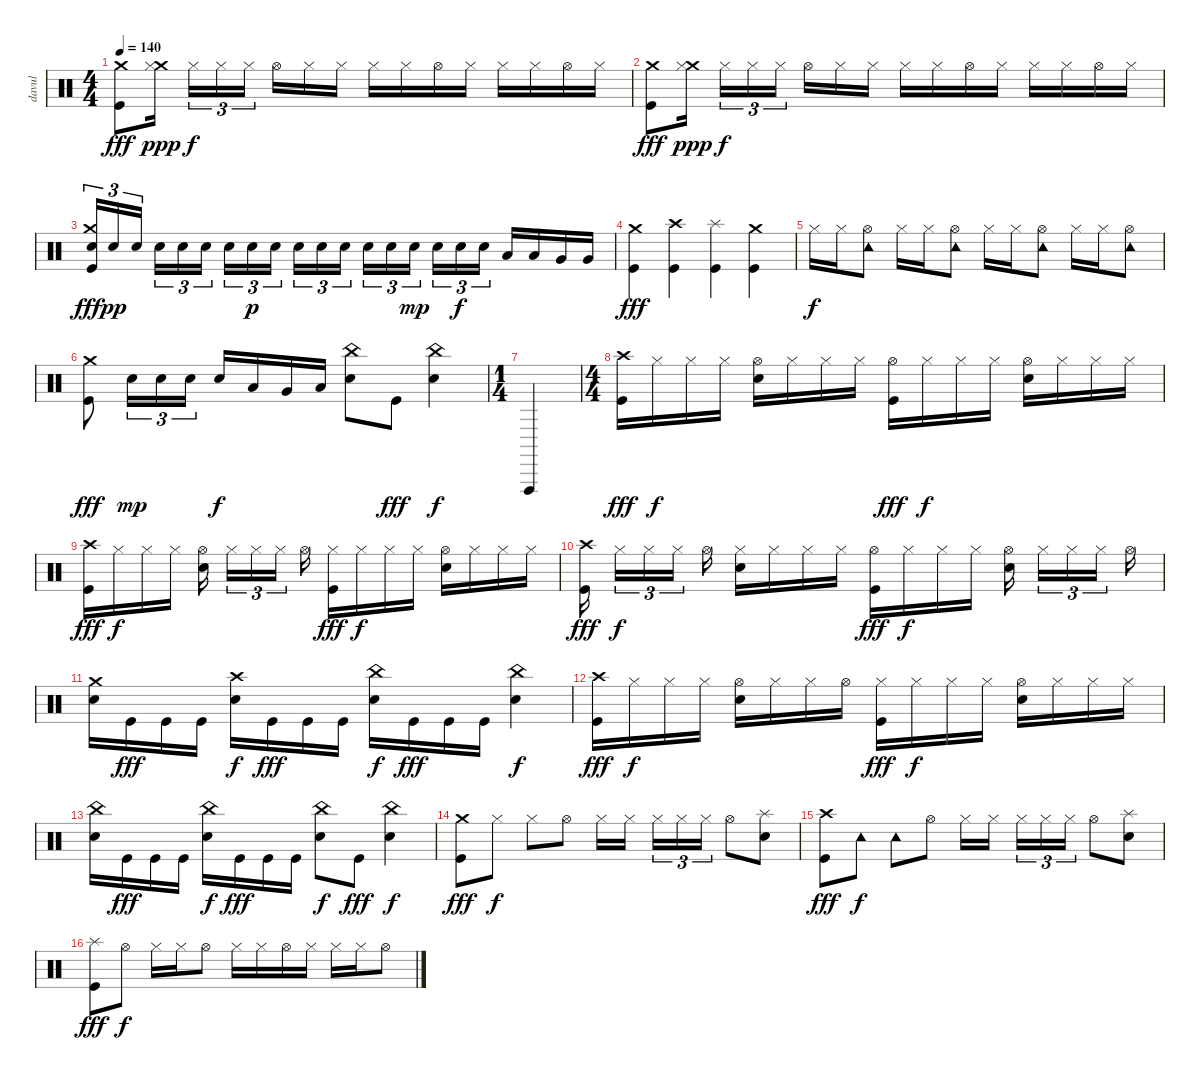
\track ("davul" "davul") {instrument percussion}
\staff {score}
\articulation defaults
\ts (4 4)
\tempo 140
\clef neutral
\ks c
("Kick (hit)" "Crash medium (hit)").8{dy fff} ("Crash medium (hit)" "Hi-Hat (closed)").16{dy ppp} "Hi-Hat (closed)".16{tu (3 2) dy f} "Hi-Hat (closed)".16{tu (3 2)} "Hi-Hat (closed)".16{tu (3 2)} "Hi-Hat (open)".16 "Hi-Hat (closed)".16 "Hi-Hat (closed)".16 "Hi-Hat (closed)".16 "Hi-Hat (closed)".16 "Hi-Hat (open)".16 "Hi-Hat (closed)".16 "Hi-Hat (closed)".16 "Hi-Hat (closed)".16 "Hi-Hat (open)".16 "Hi-Hat (closed)".16 |
("Kick (hit)" "Crash medium (hit)").8{dy fff} ("Crash medium (hit)" "Hi-Hat (closed)").16{dy ppp} "Hi-Hat (closed)".16{tu (3 2) dy f} "Hi-Hat (closed)".16{tu (3 2)} "Hi-Hat (closed)".16{tu (3 2)} "Hi-Hat (open)".16 "Hi-Hat (closed)".16 "Hi-Hat (closed)".16 "Hi-Hat (closed)".16 "Hi-Hat (closed)".16 "Hi-Hat (open)".16 "Hi-Hat (closed)".16 "Hi-Hat (closed)".16 "Hi-Hat (closed)".16 "Hi-Hat (open)".16 "Hi-Hat (closed)".16 |
("Electric Snare (hit)" "Crash medium (hit)" "Kick (hit)").16{tu (3 2) dy fff} "Electric Snare (hit)".16{tu (3 2) dy pp} "Electric Snare (hit)".16{tu (3 2)} "Electric Snare (hit)".16{tu (3 2)} "Electric Snare (hit)".16{tu (3 2)} "Electric Snare (hit)".16{tu (3 2)} "Electric Snare (hit)".16{tu (3 2)} "Electric Snare (hit)".16{tu (3 2) dy p} "Electric Snare (hit)".16{tu (3 2)} "Electric Snare (hit)".16{tu (3 2)} "Electric Snare (hit)".16{tu (3 2)} "Electric Snare (hit)".16{tu (3 2)} "Electric Snare (hit)".16{tu (3 2)} "Electric Snare (hit)".16{tu (3 2)} "Electric Snare (hit)".16{tu (3 2) dy mp} "Electric Snare (hit)".16{tu (3 2)} "Electric Snare (hit)".16{tu (3 2) dy f} "Electric Snare (hit)".16{tu (3 2)} "Low Tom (hit)".16 "Low Tom (hit)".16 "Very Low Tom (hit)".16 "Very Low Tom (hit)".16 |
("Kick (hit)" "Crash medium (hit)").4{dy fff} ("Kick (hit)" "Crash high (hit)").4 ("Kick (hit)" "Splash (hit)").4 ("Kick (hit)" "Crash medium (hit)").4 |
"Hi-Hat (closed)".16{dy f} "Hi-Hat (closed)".16 ("Hi-Hat (open)" "Tambourine (hit)").8 "Hi-Hat (closed)".16 "Hi-Hat (closed)".16 ("Hi-Hat (open)" "Tambourine (hit)").8 "Hi-Hat (closed)".16 "Hi-Hat (closed)".16 ("Hi-Hat (open)" "Tambourine (hit)").8 "Hi-Hat (closed)".16 "Hi-Hat (closed)".16 ("Tambourine (hit)" "Hi-Hat (open)").8 |
("Kick (hit)" "Crash medium (hit)").8{dy fff} "Electric Snare (hit)".16{tu (3 2) dy mp} "Electric Snare (hit)".16{tu (3 2)} "Electric Snare (hit)".16{tu (3 2)} "Electric Snare (hit)".16{dy f} "Low Tom (hit)".16 "Very Low Tom (hit)".16 "Low Floor Tom (hit)".16 ("Electric Snare (hit)" "China (hit)").8 "Kick (hit)".8{dy fff} ("Electric Snare (hit)" "China (hit)").4{dy f} |
\ts (1 4)
"Vibraslap (hit)".4 |
\ts (4 4)
("Kick (hit)" "Crash high (hit)").16{dy fff} "Hi-Hat (closed)".16{dy f} "Hi-Hat (closed)".16 "Hi-Hat (closed)".16 ("Electric Snare (hit)" "Hi-Hat (open)").16 "Hi-Hat (closed)".16 "Hi-Hat (closed)".16 "Hi-Hat (closed)".16 ("Kick (hit)" "Hi-Hat (open)").16{dy fff} "Hi-Hat (closed)".16{dy f} "Hi-Hat (closed)".16 "Hi-Hat (closed)".16 ("Electric Snare (hit)" "Hi-Hat (open)").16 "Hi-Hat (closed)".16 "Hi-Hat (closed)".16 "Hi-Hat (closed)".16 |
("Kick (hit)" "Crash high (hit)").16{dy fff} "Hi-Hat (closed)".16{dy f} "Hi-Hat (closed)".16 "Hi-Hat (closed)".16 ("Electric Snare (hit)" "Hi-Hat (open)").16 "Hi-Hat (closed)".16{tu (3 2)} "Hi-Hat (closed)".16{tu (3 2)} "Hi-Hat (closed)".16{tu (3 2)} "Hi-Hat (open)".16 ("Kick (hit)" "Hi-Hat (closed)").16{dy fff} "Hi-Hat (closed)".16{dy f} "Hi-Hat (closed)".16 "Hi-Hat (closed)".16 ("Electric Snare (hit)" "Hi-Hat (open)").16 "Hi-Hat (closed)".16 "Hi-Hat (closed)".16 "Hi-Hat (closed)".16 |
("Kick (hit)" "Crash high (hit)").16{dy fff} "Hi-Hat (closed)".16{tu (3 2) dy f} "Hi-Hat (closed)".16{tu (3 2)} "Hi-Hat (closed)".16{tu (3 2)} "Hi-Hat (open)".16 ("Electric Snare (hit)" "Hi-Hat (closed)").16 "Hi-Hat (closed)".16 "Hi-Hat (closed)".16 "Hi-Hat (closed)".16 ("Kick (hit)" "Hi-Hat (open)").16{dy fff} "Hi-Hat (closed)".16{dy f} "Hi-Hat (closed)".16 "Hi-Hat (closed)".16 ("Electric Snare (hit)" "Hi-Hat (open)").16 "Hi-Hat (closed)".16{tu (3 2)} "Hi-Hat (closed)".16{tu (3 2)} "Hi-Hat (closed)".16{tu (3 2)} "Hi-Hat (open)".16 |
("Electric Snare (hit)" "Crash medium (hit)").16 "Kick (hit)".16{dy fff} "Kick (hit)".16 "Kick (hit)".16 ("Electric Snare (hit)" "Crash high (hit)").16{dy f} "Kick (hit)".16{dy fff} "Kick (hit)".16 "Kick (hit)".16 ("Electric Snare (hit)" "China (hit)").16{dy f} "Kick (hit)".16{dy fff} "Kick (hit)".16 "Kick (hit)".16 ("Electric Snare (hit)" "China (hit)").4{dy f} |
("Kick (hit)" "Crash high (hit)").16{dy fff} "Hi-Hat (closed)".16{dy f} "Hi-Hat (closed)".16 "Hi-Hat (closed)".16 ("Electric Snare (hit)" "Hi-Hat (open)").16 "Hi-Hat (closed)".16 "Hi-Hat (closed)".16 "Hi-Hat (open)".16 ("Kick (hit)" "Hi-Hat (closed)").16{dy fff} "Hi-Hat (closed)".16{dy f} "Hi-Hat (closed)".16 "Hi-Hat (closed)".16 ("Electric Snare (hit)" "Hi-Hat (open)").16 "Hi-Hat (closed)".16 "Hi-Hat (closed)".16 "Hi-Hat (closed)".16 |
("Electric Snare (hit)" "China (hit)").16 "Kick (hit)".16{dy fff} "Kick (hit)".16 "Kick (hit)".16 ("Electric Snare (hit)" "China (hit)").16{dy f} "Kick (hit)".16{dy fff} "Kick (hit)".16 "Kick (hit)".16 ("Electric Snare (hit)" "China (hit)").8{dy f} "Kick (hit)".8{dy fff} ("Electric Snare (hit)" "China (hit)").4{dy f} |
("Kick (hit)" "Crash medium (hit)").8{dy fff} "Hi-Hat (closed)".8{dy f} "Hi-Hat (closed)".8 "Hi-Hat (open)".8 "Hi-Hat (closed)".16 "Hi-Hat (closed)".16 "Hi-Hat (closed)".16{tu (3 2)} "Hi-Hat (closed)".16{tu (3 2)} "Hi-Hat (closed)".16{tu (3 2)} "Hi-Hat (open)".8 ("Electric Snare (hit)" "Splash (hit)").8 |
("Kick (hit)" "Crash high (hit)").8{dy fff} "Tambourine (hit)".8{dy f} "Tambourine (hit)".8 "Hi-Hat (open)".8 "Hi-Hat (closed)".16 "Hi-Hat (closed)".16 "Hi-Hat (closed)".16{tu (3 2)} "Hi-Hat (closed)".16{tu (3 2)} "Hi-Hat (closed)".16{tu (3 2)} "Hi-Hat (open)".8 ("Electric Snare (hit)" "Splash (hit)").8 |
("Kick (hit)" "Splash (hit)").8{dy fff} "Hi-Hat (open)".8{dy f} "Hi-Hat (closed)".16 "Hi-Hat (closed)".16 "Hi-Hat (open)".8 "Hi-Hat (closed)".16 "Hi-Hat (closed)".16 "Hi-Hat (open)".16 "Hi-Hat (closed)".16 "Hi-Hat (closed)".16 "Hi-Hat (closed)".16 "Hi-Hat (open)".8
